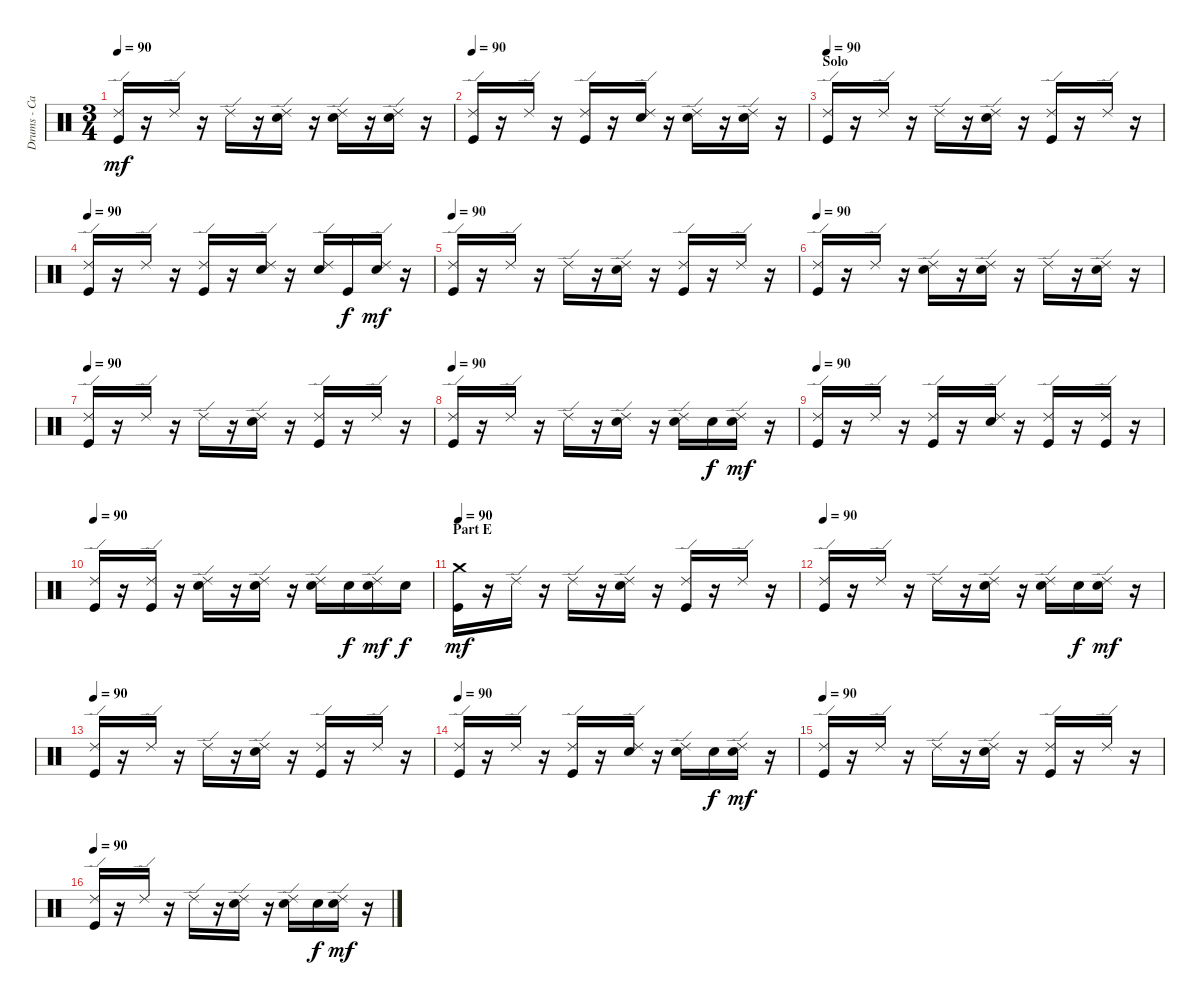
\track ("Drums - Carla Azar" "Drums - Ca") {instrument percussion}
\staff {score}
\articulation defaults
\ts (3 4)
\tempo 90
\clef neutral
\ks c
("Ride (edge) 2" "Kick (hit)").16{dy mf} r.16 "Ride (edge) 2".16 r.16 "Ride (edge) 2".16 r.16 ("Ride (edge) 2" "Snare (hit) 2").16 r.16 ("Ride (edge) 2" "Snare (hit) 2").16 r.16 ("Ride (edge) 2" "Snare (hit) 2").16 r.16 |
\tempo 90
("Ride (edge) 2" "Kick (hit)").16 r.16 "Ride (edge) 2".16 r.16 ("Ride (edge) 2" "Kick (hit)").16 r.16 ("Ride (edge) 2" "Snare (hit) 2").16 r.16 ("Ride (edge) 2" "Snare (hit) 2").16 r.16 ("Ride (edge) 2" "Snare (hit) 2").16 r.16 |
\section ("" "Solo")
\tempo 90
("Ride (edge) 2" "Kick (hit)").16 r.16 "Ride (edge) 2".16 r.16 "Ride (edge) 2".16 r.16 ("Ride (edge) 2" "Snare (hit) 2").16 r.16 ("Ride (edge) 2" "Kick (hit)").16 r.16 "Ride (edge) 2".16 r.16 |
\tempo 90
("Ride (edge) 2" "Kick (hit)").16 r.16 "Ride (edge) 2".16 r.16 ("Ride (edge) 2" "Kick (hit)").16 r.16 ("Ride (edge) 2" "Snare (hit) 2").16 r.16 ("Ride (edge) 2" "Snare (hit) 2").16 "Kick (hit)".16{dy f} ("Ride (edge) 2" "Snare (hit) 2").16{dy mf} r.16 |
\tempo 90
("Ride (edge) 2" "Kick (hit)").16 r.16 "Ride (edge) 2".16 r.16 "Ride (edge) 2".16 r.16 ("Ride (edge) 2" "Snare (hit) 2").16 r.16 ("Ride (edge) 2" "Kick (hit)").16 r.16 "Ride (edge) 2".16 r.16 |
\tempo 90
("Ride (edge) 2" "Kick (hit)").16 r.16 "Ride (edge) 2".16 r.16 ("Ride (edge) 2" "Snare (hit) 2").16 r.16 ("Ride (edge) 2" "Snare (hit) 2").16 r.16 "Ride (edge) 2".16 r.16 ("Ride (edge) 2" "Snare (hit) 2").16 r.16 |
\tempo 90
("Ride (edge) 2" "Kick (hit)").16 r.16 "Ride (edge) 2".16 r.16 "Ride (edge) 2".16 r.16 ("Ride (edge) 2" "Snare (hit) 2").16 r.16 ("Ride (edge) 2" "Kick (hit)").16 r.16 "Ride (edge) 2".16 r.16 |
\tempo 90
("Ride (edge) 2" "Kick (hit)").16 r.16 "Ride (edge) 2".16 r.16 "Ride (edge) 2".16 r.16 ("Ride (edge) 2" "Snare (hit) 2").16 r.16 ("Ride (edge) 2" "Snare (hit) 2").16 "Snare (hit) 2".16{dy f} ("Ride (edge) 2" "Snare (hit) 2").16{dy mf} r.16 |
\tempo 90
("Ride (edge) 2" "Kick (hit)").16 r.16 "Ride (edge) 2".16 r.16 ("Ride (edge) 2" "Kick (hit)").16 r.16 ("Ride (edge) 2" "Snare (hit) 2").16 r.16 ("Ride (edge) 2" "Kick (hit)").16 r.16 ("Ride (edge) 2" "Kick (hit)").16 r.16 |
\tempo 90
("Ride (edge) 2" "Kick (hit)").16 r.16 ("Ride (edge) 2" "Kick (hit)").16 r.16 ("Ride (edge) 2" "Snare (hit) 2").16 r.16 ("Ride (edge) 2" "Snare (hit) 2").16 r.16 ("Ride (edge) 2" "Snare (hit) 2").16 "Snare (hit) 2".16{dy f} ("Ride (edge) 2" "Snare (hit) 2").16{dy mf} "Snare (hit) 2".16{dy f} |
\section ("" "Part E")
\tempo 90
("Crash medium (hit)" "Kick (hit)").16{dy mf} r.16 "Ride (edge) 2".16 r.16 "Ride (edge) 2".16 r.16 ("Ride (edge) 2" "Snare (hit) 2").16 r.16 ("Ride (edge) 2" "Kick (hit)").16 r.16 "Ride (edge) 2".16 r.16 |
\tempo 90
("Ride (edge) 2" "Kick (hit)").16 r.16 "Ride (edge) 2".16 r.16 "Ride (edge) 2".16 r.16 ("Ride (edge) 2" "Snare (hit) 2").16 r.16 ("Ride (edge) 2" "Snare (hit) 2").16 "Snare (hit) 2".16{dy f} ("Ride (edge) 2" "Snare (hit) 2").16{dy mf} r.16 |
\tempo 90
("Ride (edge) 2" "Kick (hit)").16 r.16 "Ride (edge) 2".16 r.16 "Ride (edge) 2".16 r.16 ("Ride (edge) 2" "Snare (hit) 2").16 r.16 ("Ride (edge) 2" "Kick (hit)").16 r.16 "Ride (edge) 2".16 r.16 |
\tempo 90
("Ride (edge) 2" "Kick (hit)").16 r.16 "Ride (edge) 2".16 r.16 ("Ride (edge) 2" "Kick (hit)").16 r.16 ("Ride (edge) 2" "Snare (hit) 2").16 r.16 ("Ride (edge) 2" "Snare (hit) 2").16 "Snare (hit) 2".16{dy f} ("Ride (edge) 2" "Snare (hit) 2").16{dy mf} r.16 |
\tempo 90
("Ride (edge) 2" "Kick (hit)").16 r.16 "Ride (edge) 2".16 r.16 "Ride (edge) 2".16 r.16 ("Ride (edge) 2" "Snare (hit) 2").16 r.16 ("Ride (edge) 2" "Kick (hit)").16 r.16 "Ride (edge) 2".16 r.16 |
\tempo 90
("Ride (edge) 2" "Kick (hit)").16 r.16 "Ride (edge) 2".16 r.16 "Ride (edge) 2".16 r.16 ("Ride (edge) 2" "Snare (hit) 2").16 r.16 ("Ride (edge) 2" "Snare (hit) 2").16 "Snare (hit) 2".16{dy f} ("Ride (edge) 2" "Snare (hit) 2").16{dy mf} r.16
